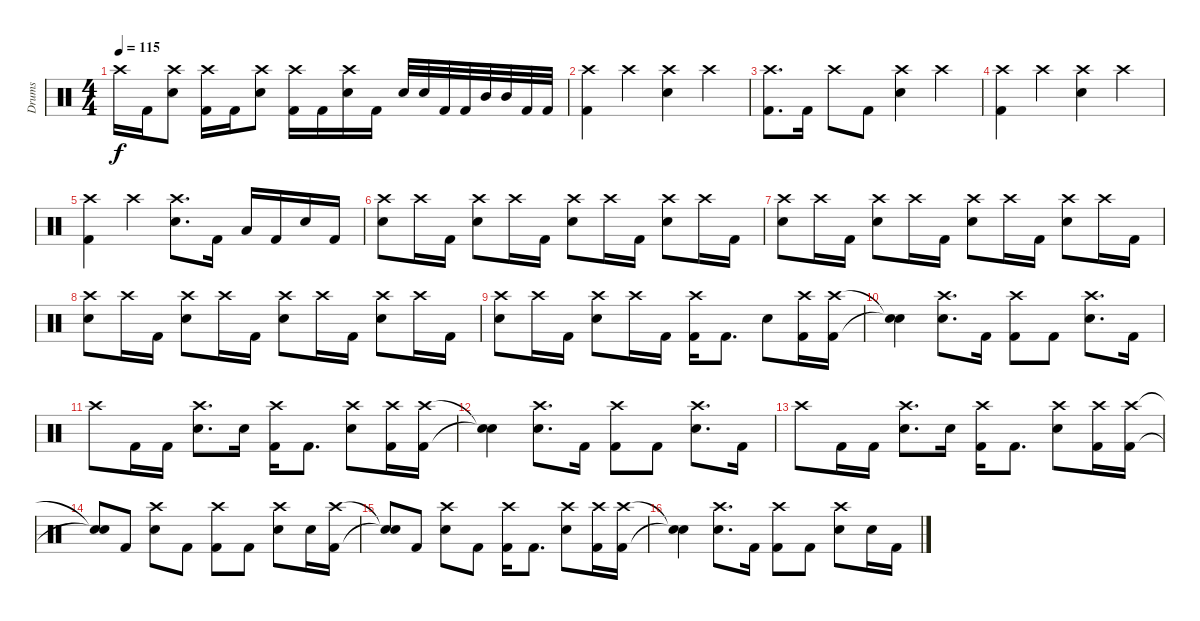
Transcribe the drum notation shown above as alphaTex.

\track ("Drums" "Drums") {instrument percussion}
\staff {score}
\articulation defaults
\ts (4 4)
\tempo 115
\clef neutral
\ks c "Crash high (hit)".16{dy f} "Kick (hit) 2".16
("Crash high (hit)" "Electric Snare (hit)").8 ("Crash high (hit)" "Kick (hit) 2").16 "Kick (hit) 2".16 ("Crash high (hit)" "Electric Snare (hit)").8 ("Crash high (hit)" "Kick (hit) 2").16 "Kick (hit) 2".16 ("Crash high (hit)" "Electric Snare (hit)").16 "Kick (hit) 2".16 "Electric Snare (hit)".32 "Electric Snare (hit)".32 "Kick (hit) 2".32 "Kick (hit) 2".32 "Mid Tom (hit)".32 "Mid Tom (hit)".32 "Kick (hit) 2".32 "Kick (hit) 2".32 |
("Crash high (hit)" "Kick (hit) 2").4 "Crash high (hit)".4 ("Crash high (hit)" "Electric Snare (hit)").4 "Crash high (hit)".4 |
("Crash high (hit)" "Kick (hit) 2").8{d} "Kick (hit) 2".16 "Crash high (hit)".8 "Kick (hit) 2".8 ("Crash high (hit)" "Electric Snare (hit)").4 "Crash high (hit)".4 |
("Crash high (hit)" "Kick (hit) 2").4 "Crash high (hit)".4 ("Crash high (hit)" "Electric Snare (hit)").4 "Crash high (hit)".4 |
("Crash high (hit)" "Kick (hit) 2").4 "Crash high (hit)".4 ("Crash high (hit)" "Electric Snare (hit)").8{d} "Kick (hit) 2".16 "Low Tom (hit)".16 "Kick (hit) 2".16 "Electric Snare (hit)".16 "Kick (hit) 2".16 |
("Crash high (hit)" "Electric Snare (hit)").8 "Crash high (hit)".16 "Kick (hit) 2".16 ("Crash high (hit)" "Electric Snare (hit)").8 "Crash high (hit)".16 "Kick (hit) 2".16 ("Crash high (hit)" "Electric Snare (hit)").8 "Crash high (hit)".16 "Kick (hit) 2".16 ("Crash high (hit)" "Electric Snare (hit)").8 "Crash high (hit)".16 "Kick (hit) 2".16 |
("Crash high (hit)" "Electric Snare (hit)").8 "Crash high (hit)".16 "Kick (hit) 2".16 ("Crash high (hit)" "Electric Snare (hit)").8 "Crash high (hit)".16 "Kick (hit) 2".16 ("Crash high (hit)" "Electric Snare (hit)").8 "Crash high (hit)".16 "Kick (hit) 2".16 ("Crash high (hit)" "Electric Snare (hit)").8 "Crash high (hit)".16 "Kick (hit) 2".16 |
("Crash high (hit)" "Electric Snare (hit)").8 "Crash high (hit)".16 "Kick (hit) 2".16 ("Crash high (hit)" "Electric Snare (hit)").8 "Crash high (hit)".16 "Kick (hit) 2".16 ("Crash high (hit)" "Electric Snare (hit)").8 "Crash high (hit)".16 "Kick (hit) 2".16 ("Crash high (hit)" "Electric Snare (hit)").8 "Crash high (hit)".16 "Kick (hit) 2".16 |
("Crash high (hit)" "Electric Snare (hit)").8 "Crash high (hit)".16 "Kick (hit) 2".16 ("Crash high (hit)" "Electric Snare (hit)").8 "Crash high (hit)".16 "Kick (hit) 2".16 ("Crash high (hit)" "Kick (hit) 2").16 "Kick (hit) 2".8{d} "Electric Snare (hit)".8 ("Crash high (hit)" "Kick (hit) 2").16 ("Crash high (hit)" "Kick (hit) 2").16 |
("Snare (hit)"{t} "Snare (hit)"{t}).4 ("Crash high (hit)" "Electric Snare (hit)").8{d} "Kick (hit) 2".16 ("Crash high (hit)" "Kick (hit) 2").8 "Kick (hit) 2".8 ("Crash high (hit)" "Electric Snare (hit)").8{d} "Kick (hit) 2".16 |
"Crash high (hit)".8 "Kick (hit) 2".16 "Kick (hit) 2".16 ("Crash high (hit)" "Electric Snare (hit)").8{d} "Electric Snare (hit)".16 ("Crash high (hit)" "Kick (hit) 2").16 "Kick (hit) 2".8{d} ("Crash high (hit)" "Electric Snare (hit)").8 ("Crash high (hit)" "Kick (hit) 2").16 ("Crash high (hit)" "Kick (hit) 2").16 |
("Snare (hit)"{t} "Snare (hit)"{t}).4 ("Crash high (hit)" "Electric Snare (hit)").8{d} "Kick (hit) 2".16 ("Crash high (hit)" "Kick (hit) 2").8 "Kick (hit) 2".8 ("Crash high (hit)" "Electric Snare (hit)").8{d} "Kick (hit) 2".16 |
"Crash high (hit)".8 "Kick (hit) 2".16 "Kick (hit) 2".16 ("Crash high (hit)" "Electric Snare (hit)").8{d} "Electric Snare (hit)".16 ("Crash high (hit)" "Kick (hit) 2").16 "Kick (hit) 2".8{d} ("Crash high (hit)" "Electric Snare (hit)").8 ("Crash high (hit)" "Kick (hit) 2").16 ("Crash high (hit)" "Kick (hit) 2").16 |
("Snare (hit)"{t} "Snare (hit)"{t}).8 "Kick (hit) 2".8 ("Crash high (hit)" "Electric Snare (hit)").8 "Kick (hit) 2".8 ("Crash high (hit)" "Kick (hit) 2").8 "Kick (hit) 2".8 ("Crash high (hit)" "Electric Snare (hit)").8 "Electric Snare (hit)".16 ("Crash high (hit)" "Kick (hit) 2").16 |
("Snare (hit)"{t} "Snare (hit)"{t}).8 "Kick (hit) 2".8 ("Crash high (hit)" "Electric Snare (hit)").8 "Kick (hit) 2".8 ("Crash high (hit)" "Kick (hit) 2").16 "Kick (hit) 2".8{d} ("Crash high (hit)" "Electric Snare (hit)").8 ("Crash high (hit)" "Kick (hit) 2").16 ("Crash high (hit)" "Kick (hit) 2").16 |
("Snare (hit)"{t} "Snare (hit)"{t}).4 ("Crash high (hit)" "Electric Snare (hit)").8{d} "Kick (hit) 2".16 ("Crash high (hit)" "Kick (hit) 2").8 "Kick (hit) 2".8 ("Crash high (hit)" "Electric Snare (hit)").8 "Electric Snare (hit)".16 "Kick (hit) 2".16
